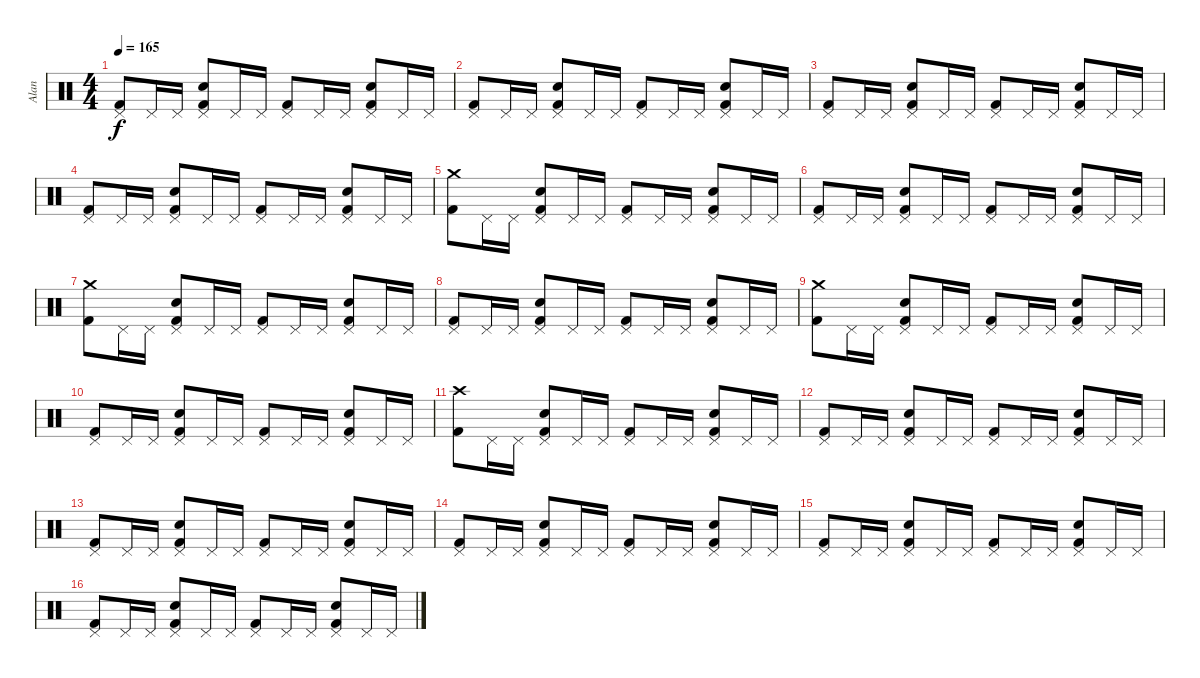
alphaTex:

\track ("Alan" "Alan") {instrument percussion}
\staff {score}
\articulation defaults
\ts (4 4)
\tempo 165
\clef neutral
\ks c
("Kick (hit) 2" "Pedal Hi-Hat (hit)").8{dy f} "Pedal Hi-Hat (hit)".16 "Pedal Hi-Hat (hit)".16 ("Pedal Hi-Hat (hit)" "Kick (hit) 2" "Snare (hit) 2").8 "Pedal Hi-Hat (hit)".16 "Pedal Hi-Hat (hit)".16 ("Pedal Hi-Hat (hit)" "Kick (hit) 2").8 "Pedal Hi-Hat (hit)".16 "Pedal Hi-Hat (hit)".16 ("Pedal Hi-Hat (hit)" "Kick (hit) 2" "Snare (hit) 2").8 "Pedal Hi-Hat (hit)".16 "Pedal Hi-Hat (hit)".16 |
("Kick (hit) 2" "Pedal Hi-Hat (hit)").8 "Pedal Hi-Hat (hit)".16 "Pedal Hi-Hat (hit)".16 ("Pedal Hi-Hat (hit)" "Kick (hit) 2" "Snare (hit) 2").8 "Pedal Hi-Hat (hit)".16 "Pedal Hi-Hat (hit)".16 ("Pedal Hi-Hat (hit)" "Kick (hit) 2").8 "Pedal Hi-Hat (hit)".16 "Pedal Hi-Hat (hit)".16 ("Pedal Hi-Hat (hit)" "Kick (hit) 2" "Snare (hit) 2").8 "Pedal Hi-Hat (hit)".16 "Pedal Hi-Hat (hit)".16 |
("Kick (hit) 2" "Pedal Hi-Hat (hit)").8 "Pedal Hi-Hat (hit)".16 "Pedal Hi-Hat (hit)".16 ("Pedal Hi-Hat (hit)" "Kick (hit) 2" "Snare (hit) 2").8 "Pedal Hi-Hat (hit)".16 "Pedal Hi-Hat (hit)".16 ("Pedal Hi-Hat (hit)" "Kick (hit) 2").8 "Pedal Hi-Hat (hit)".16 "Pedal Hi-Hat (hit)".16 ("Pedal Hi-Hat (hit)" "Kick (hit) 2" "Snare (hit) 2").8 "Pedal Hi-Hat (hit)".16 "Pedal Hi-Hat (hit)".16 |
("Kick (hit) 2" "Pedal Hi-Hat (hit)").8 "Pedal Hi-Hat (hit)".16 "Pedal Hi-Hat (hit)".16 ("Pedal Hi-Hat (hit)" "Kick (hit) 2" "Snare (hit) 2").8 "Pedal Hi-Hat (hit)".16 "Pedal Hi-Hat (hit)".16 ("Pedal Hi-Hat (hit)" "Kick (hit) 2").8 "Pedal Hi-Hat (hit)".16 "Pedal Hi-Hat (hit)".16 ("Pedal Hi-Hat (hit)" "Kick (hit) 2" "Snare (hit) 2").8 "Pedal Hi-Hat (hit)".16 "Pedal Hi-Hat (hit)".16 |
("Kick (hit) 2" "Crash medium (hit)").8 "Pedal Hi-Hat (hit)".16 "Pedal Hi-Hat (hit)".16 ("Pedal Hi-Hat (hit)" "Kick (hit) 2" "Snare (hit) 2").8 "Pedal Hi-Hat (hit)".16 "Pedal Hi-Hat (hit)".16 ("Pedal Hi-Hat (hit)" "Kick (hit) 2").8 "Pedal Hi-Hat (hit)".16 "Pedal Hi-Hat (hit)".16 ("Pedal Hi-Hat (hit)" "Kick (hit) 2" "Snare (hit) 2").8 "Pedal Hi-Hat (hit)".16 "Pedal Hi-Hat (hit)".16 |
("Kick (hit) 2" "Pedal Hi-Hat (hit)").8 "Pedal Hi-Hat (hit)".16 "Pedal Hi-Hat (hit)".16 ("Pedal Hi-Hat (hit)" "Kick (hit) 2" "Snare (hit) 2").8 "Pedal Hi-Hat (hit)".16 "Pedal Hi-Hat (hit)".16 ("Pedal Hi-Hat (hit)" "Kick (hit) 2").8 "Pedal Hi-Hat (hit)".16 "Pedal Hi-Hat (hit)".16 ("Pedal Hi-Hat (hit)" "Kick (hit) 2" "Snare (hit) 2").8 "Pedal Hi-Hat (hit)".16 "Pedal Hi-Hat (hit)".16 |
("Kick (hit) 2" "Crash medium (hit)").8 "Pedal Hi-Hat (hit)".16 "Pedal Hi-Hat (hit)".16 ("Pedal Hi-Hat (hit)" "Kick (hit) 2" "Snare (hit) 2").8 "Pedal Hi-Hat (hit)".16 "Pedal Hi-Hat (hit)".16 ("Pedal Hi-Hat (hit)" "Kick (hit) 2").8 "Pedal Hi-Hat (hit)".16 "Pedal Hi-Hat (hit)".16 ("Pedal Hi-Hat (hit)" "Kick (hit) 2" "Snare (hit) 2").8 "Pedal Hi-Hat (hit)".16 "Pedal Hi-Hat (hit)".16 |
("Kick (hit) 2" "Pedal Hi-Hat (hit)").8 "Pedal Hi-Hat (hit)".16 "Pedal Hi-Hat (hit)".16 ("Pedal Hi-Hat (hit)" "Kick (hit) 2" "Snare (hit) 2").8 "Pedal Hi-Hat (hit)".16 "Pedal Hi-Hat (hit)".16 ("Pedal Hi-Hat (hit)" "Kick (hit) 2").8 "Pedal Hi-Hat (hit)".16 "Pedal Hi-Hat (hit)".16 ("Pedal Hi-Hat (hit)" "Kick (hit) 2" "Snare (hit) 2").8 "Pedal Hi-Hat (hit)".16 "Pedal Hi-Hat (hit)".16 |
("Kick (hit) 2" "Crash medium (hit)").8 "Pedal Hi-Hat (hit)".16 "Pedal Hi-Hat (hit)".16 ("Pedal Hi-Hat (hit)" "Kick (hit) 2" "Snare (hit) 2").8 "Pedal Hi-Hat (hit)".16 "Pedal Hi-Hat (hit)".16 ("Pedal Hi-Hat (hit)" "Kick (hit) 2").8 "Pedal Hi-Hat (hit)".16 "Pedal Hi-Hat (hit)".16 ("Pedal Hi-Hat (hit)" "Kick (hit) 2" "Snare (hit) 2").8 "Pedal Hi-Hat (hit)".16 "Pedal Hi-Hat (hit)".16 |
("Kick (hit) 2" "Pedal Hi-Hat (hit)").8 "Pedal Hi-Hat (hit)".16 "Pedal Hi-Hat (hit)".16 ("Pedal Hi-Hat (hit)" "Kick (hit) 2" "Snare (hit) 2").8 "Pedal Hi-Hat (hit)".16 "Pedal Hi-Hat (hit)".16 ("Pedal Hi-Hat (hit)" "Kick (hit) 2").8 "Pedal Hi-Hat (hit)".16 "Pedal Hi-Hat (hit)".16 ("Pedal Hi-Hat (hit)" "Kick (hit) 2" "Snare (hit) 2").8 "Pedal Hi-Hat (hit)".16 "Pedal Hi-Hat (hit)".16 |
("Kick (hit) 2" "Crash high (hit)").8 "Pedal Hi-Hat (hit)".16 "Pedal Hi-Hat (hit)".16 ("Pedal Hi-Hat (hit)" "Kick (hit) 2" "Snare (hit) 2").8 "Pedal Hi-Hat (hit)".16 "Pedal Hi-Hat (hit)".16 ("Pedal Hi-Hat (hit)" "Kick (hit) 2").8 "Pedal Hi-Hat (hit)".16 "Pedal Hi-Hat (hit)".16 ("Pedal Hi-Hat (hit)" "Kick (hit) 2" "Snare (hit) 2").8 "Pedal Hi-Hat (hit)".16 "Pedal Hi-Hat (hit)".16 |
("Kick (hit) 2" "Pedal Hi-Hat (hit)").8 "Pedal Hi-Hat (hit)".16 "Pedal Hi-Hat (hit)".16 ("Pedal Hi-Hat (hit)" "Kick (hit) 2" "Snare (hit) 2").8 "Pedal Hi-Hat (hit)".16 "Pedal Hi-Hat (hit)".16 ("Pedal Hi-Hat (hit)" "Kick (hit) 2").8 "Pedal Hi-Hat (hit)".16 "Pedal Hi-Hat (hit)".16 ("Pedal Hi-Hat (hit)" "Kick (hit) 2" "Snare (hit) 2").8 "Pedal Hi-Hat (hit)".16 "Pedal Hi-Hat (hit)".16 |
("Kick (hit) 2" "Pedal Hi-Hat (hit)").8 "Pedal Hi-Hat (hit)".16 "Pedal Hi-Hat (hit)".16 ("Pedal Hi-Hat (hit)" "Kick (hit) 2" "Snare (hit) 2").8 "Pedal Hi-Hat (hit)".16 "Pedal Hi-Hat (hit)".16 ("Pedal Hi-Hat (hit)" "Kick (hit) 2").8 "Pedal Hi-Hat (hit)".16 "Pedal Hi-Hat (hit)".16 ("Pedal Hi-Hat (hit)" "Kick (hit) 2" "Snare (hit) 2").8 "Pedal Hi-Hat (hit)".16 "Pedal Hi-Hat (hit)".16 |
("Kick (hit) 2" "Pedal Hi-Hat (hit)").8 "Pedal Hi-Hat (hit)".16 "Pedal Hi-Hat (hit)".16 ("Pedal Hi-Hat (hit)" "Kick (hit) 2" "Snare (hit) 2").8 "Pedal Hi-Hat (hit)".16 "Pedal Hi-Hat (hit)".16 ("Pedal Hi-Hat (hit)" "Kick (hit) 2").8 "Pedal Hi-Hat (hit)".16 "Pedal Hi-Hat (hit)".16 ("Pedal Hi-Hat (hit)" "Kick (hit) 2" "Snare (hit) 2").8 "Pedal Hi-Hat (hit)".16 "Pedal Hi-Hat (hit)".16 |
("Kick (hit) 2" "Pedal Hi-Hat (hit)").8 "Pedal Hi-Hat (hit)".16 "Pedal Hi-Hat (hit)".16 ("Pedal Hi-Hat (hit)" "Kick (hit) 2" "Snare (hit) 2").8 "Pedal Hi-Hat (hit)".16 "Pedal Hi-Hat (hit)".16 ("Pedal Hi-Hat (hit)" "Kick (hit) 2").8 "Pedal Hi-Hat (hit)".16 "Pedal Hi-Hat (hit)".16 ("Pedal Hi-Hat (hit)" "Kick (hit) 2" "Snare (hit) 2").8 "Pedal Hi-Hat (hit)".16 "Pedal Hi-Hat (hit)".16 |
("Kick (hit) 2" "Pedal Hi-Hat (hit)").8 "Pedal Hi-Hat (hit)".16 "Pedal Hi-Hat (hit)".16 ("Pedal Hi-Hat (hit)" "Kick (hit) 2" "Snare (hit) 2").8 "Pedal Hi-Hat (hit)".16 "Pedal Hi-Hat (hit)".16 ("Pedal Hi-Hat (hit)" "Kick (hit) 2").8 "Pedal Hi-Hat (hit)".16 "Pedal Hi-Hat (hit)".16 ("Pedal Hi-Hat (hit)" "Kick (hit) 2" "Snare (hit) 2").8 "Pedal Hi-Hat (hit)".16 "Pedal Hi-Hat (hit)".16
